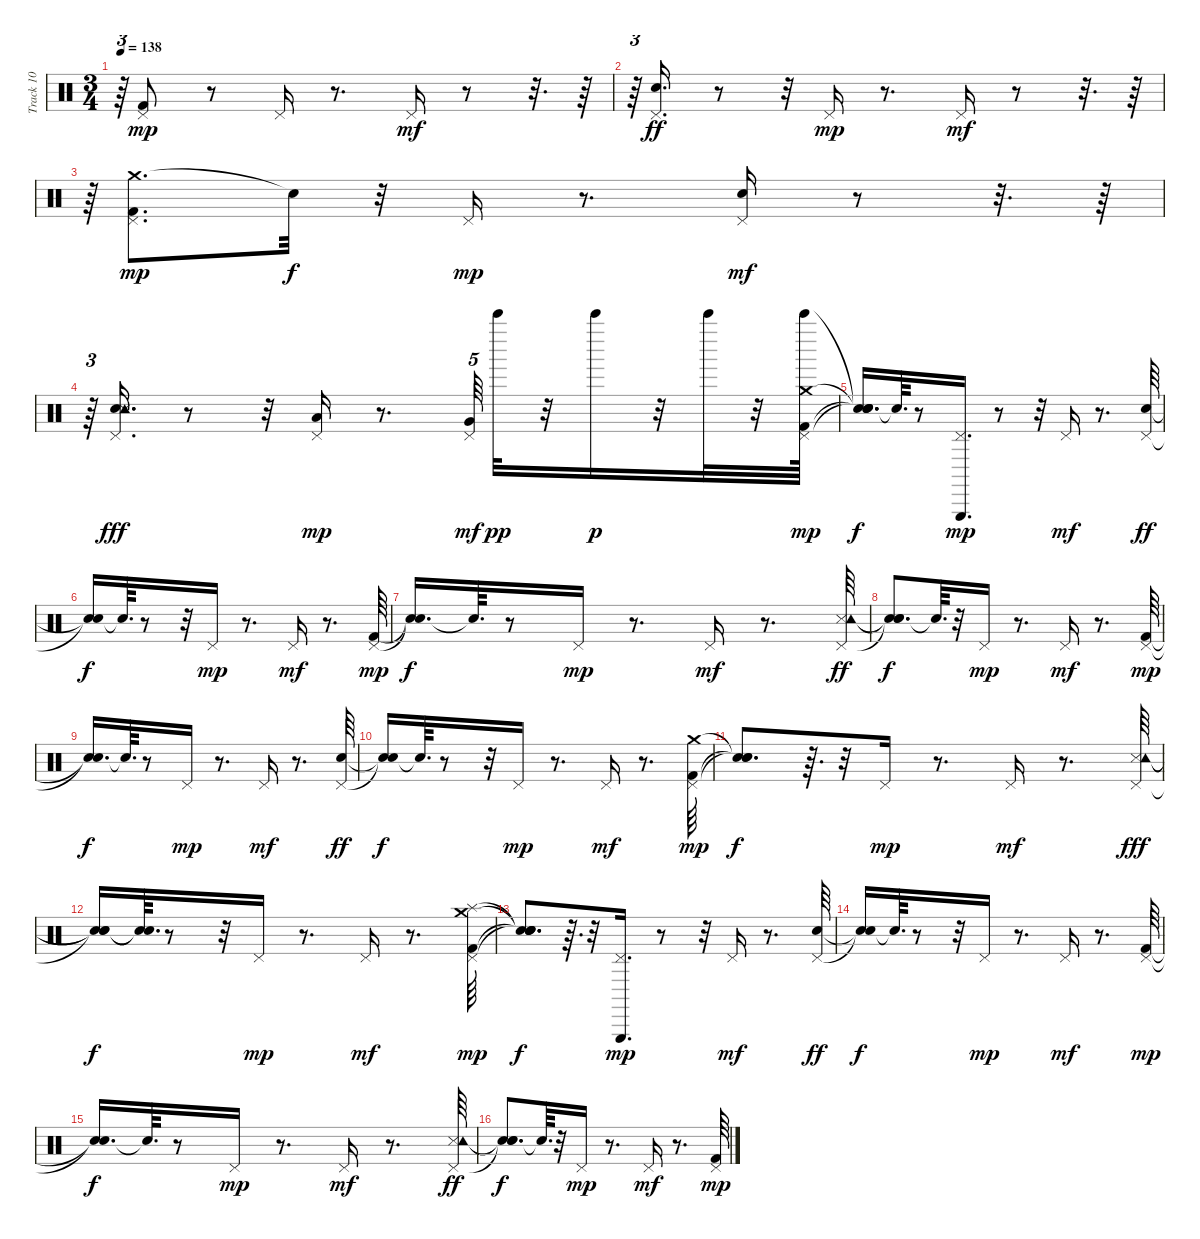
\track ("Track 10" "Track 10") {instrument percussion}
\staff {score}
\articulation defaults
\ts (3 4)
\tempo 138
\clef neutral
\ks c
r.64{tu (3 2) dy mf} ("Pedal Hi-Hat (hit)" "Kick (hit) 2").8{dy mp} r.8 "Pedal Hi-Hat (hit)".16 r.8{d} "Pedal Hi-Hat (hit)".16{dy mf} r.8 r.32{d} r.64 |
r.64{tu (3 2)} ("Pedal Hi-Hat (hit)" "Electric Snare (hit)").16{d dy ff} r.8 r.32 "Pedal Hi-Hat (hit)".16{dy mp} r.8{d} "Pedal Hi-Hat (hit)".16{dy mf} r.8 r.32{d} r.64 |
r.64{tu (3 2)} ("Crash medium (hit)" "Pedal Hi-Hat (hit)" "Kick (hit) 2").8{d dy mp} "Snare (hit)"{t}.32{dy f} r.32 "Pedal Hi-Hat (hit)".16{dy mp} r.8{d} ("Electric Snare (hit)" "Pedal Hi-Hat (hit)").16{dy mf} r.8 r.32{d} r.64 |
r.64{tu (3 2)} ("Electric Snare (hit)" "Pedal Hi-Hat (hit)" "Snare (side stick) 3" "Tambourine (hit)").16{d dy fff} r.8 r.32 ("Low Tom (hit)" "Pedal Hi-Hat (hit)").16{dy mp} r.8{d} ("Very Low Tom (hit)" "Pedal Hi-Hat (hit)").64{tu (5 4) dy mf} "Bell Tree (hit)".32{dy pp} r.32 "Bell Tree (hit)".16{dy p} r.32 "Bell Tree (hit)".32 r.32 ("Bell Tree (hit)" "Pedal Hi-Hat (hit)" "Kick (hit) 2" "Crash medium (hit)").64{dy mp} |
("Snare (hit)"{t} "Snare (hit)"{t} "Snare (hit)"{t} "Snare (hit)"{t}).16{d dy f} "Snare (hit)"{t}.64{d} r.8 ("Pedal Hi-Hat (hit)" "Triangle (hit)").16{d dy mp} r.8 r.32 "Pedal Hi-Hat (hit)".16{dy mf} r.8{d} ("Pedal Hi-Hat (hit)" "Electric Snare (hit)").64{dy ff} |
("Snare (hit)"{t} "Snare (hit)"{t}).16{dy f} "Snare (hit)"{t}.64{d} r.8 r.32 "Pedal Hi-Hat (hit)".16{dy mp} r.8{d} "Pedal Hi-Hat (hit)".16{dy mf} r.8{d} ("Pedal Hi-Hat (hit)" "Kick (hit) 2").64{dy mp} |
("Snare (hit)"{t} "Snare (hit)"{t}).16{d dy f} "Snare (hit)"{t}.64{d} r.8 "Pedal Hi-Hat (hit)".16{dy mp} r.8{d} "Pedal Hi-Hat (hit)".16{dy mf} r.8{d} ("Pedal Hi-Hat (hit)" "Snare (side stick) 3" "Tambourine (hit)").64{dy ff} |
("Snare (hit)"{t} "Snare (hit)"{t} "Snare (hit)"{t}).8{d dy f} "Snare (hit)"{t}.64{d} r.32 "Pedal Hi-Hat (hit)".16{dy mp} r.8{d} "Pedal Hi-Hat (hit)".16{dy mf} r.8{d} ("Pedal Hi-Hat (hit)" "Kick (hit) 2").64{dy mp} |
("Snare (hit)"{t} "Snare (hit)"{t}).16{d dy f} "Snare (hit)"{t}.64{d} r.8 "Pedal Hi-Hat (hit)".16{dy mp} r.8{d} "Pedal Hi-Hat (hit)".16{dy mf} r.8{d} ("Pedal Hi-Hat (hit)" "Electric Snare (hit)").64{dy ff} |
("Snare (hit)"{t} "Snare (hit)"{t}).16{dy f} "Snare (hit)"{t}.64{d} r.8 r.32 "Pedal Hi-Hat (hit)".16{dy mp} r.8{d} "Pedal Hi-Hat (hit)".16{dy mf} r.8{d} ("Crash medium (hit)" "Pedal Hi-Hat (hit)" "Kick (hit) 2").64{dy mp} |
("Snare (hit)"{t} "Snare (hit)"{t} "Snare (hit)"{t}).8{d dy f} r.64{d} r.32 "Pedal Hi-Hat (hit)".16{dy mp} r.8{d} "Pedal Hi-Hat (hit)".16{dy mf} r.8{d} ("Pedal Hi-Hat (hit)" "Snare (side stick) 3" "Tambourine (hit)").64{dy fff} |
("Snare (hit)"{t} "Snare (hit)"{t} "Snare (hit)"{t}).16{dy f} ("Snare (hit)"{t} "Snare (hit)"{t}).64{d} r.8 r.32 "Pedal Hi-Hat (hit)".16{dy mp} r.8{d} "Pedal Hi-Hat (hit)".16{dy mf} r.8{d} ("Splash (hit)" "Pedal Hi-Hat (hit)" "Kick (hit) 2" "Crash medium (hit)").64{dy mp} |
("Snare (hit)"{t} "Snare (hit)"{t} "Snare (hit)"{t} "Snare (hit)"{t}).8{d dy f} r.64{d} r.32 ("Pedal Hi-Hat (hit)" "Triangle (hit)").16{d dy mp} r.8 r.32 "Pedal Hi-Hat (hit)".16{dy mf} r.8{d} ("Pedal Hi-Hat (hit)" "Electric Snare (hit)").64{dy ff} |
("Snare (hit)"{t} "Snare (hit)"{t}).16{dy f} "Snare (hit)"{t}.64{d} r.8 r.32 "Pedal Hi-Hat (hit)".16{dy mp} r.8{d} "Pedal Hi-Hat (hit)".16{dy mf} r.8{d} ("Pedal Hi-Hat (hit)" "Kick (hit) 2").64{dy mp} |
("Snare (hit)"{t} "Snare (hit)"{t}).16{d dy f} "Snare (hit)"{t}.64{d} r.8 "Pedal Hi-Hat (hit)".16{dy mp} r.8{d} "Pedal Hi-Hat (hit)".16{dy mf} r.8{d} ("Pedal Hi-Hat (hit)" "Snare (side stick) 3" "Tambourine (hit)").64{dy ff} |
("Snare (hit)"{t} "Snare (hit)"{t} "Snare (hit)"{t}).8{d dy f} "Snare (hit)"{t}.64{d} r.32 "Pedal Hi-Hat (hit)".16{dy mp} r.8{d} "Pedal Hi-Hat (hit)".16{dy mf} r.8{d} ("Pedal Hi-Hat (hit)" "Kick (hit) 2").64{dy mp}
